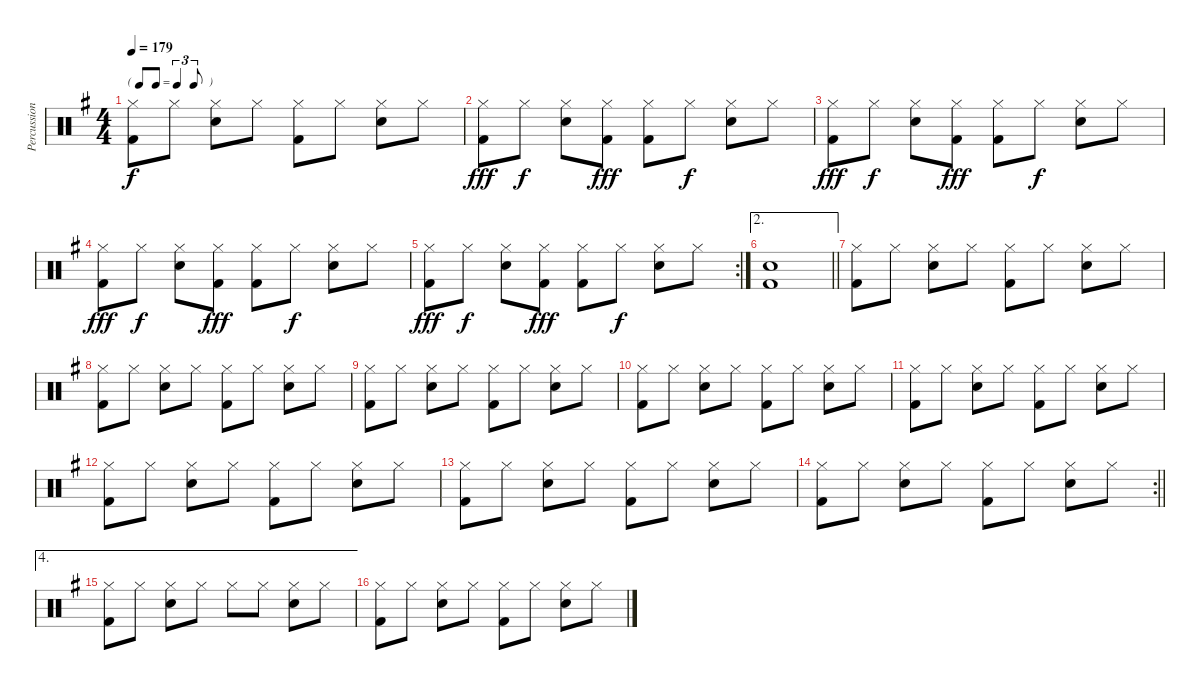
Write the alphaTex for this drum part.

\track ("Percussion" "Percussion") {instrument percussion}
\staff {score}
\articulation defaults
\ts (4 4)
\tf triplet8th
\tempo 179
\clef neutral
\ks g
("Hi-Hat (closed)" "Kick (hit) 2").8{dy f} "Hi-Hat (closed)".8 ("Hi-Hat (closed)" "Snare (hit) 2").8 "Hi-Hat (closed)".8 ("Hi-Hat (closed)" "Kick (hit) 2").8 "Hi-Hat (closed)".8 ("Hi-Hat (closed)" "Snare (hit) 2").8 "Hi-Hat (closed)".8 |
("Hi-Hat (closed)" "Kick (hit) 2").8{dy fff} "Hi-Hat (closed)".8{dy f} ("Hi-Hat (closed)" "Snare (hit) 2").8 ("Hi-Hat (closed)" "Kick (hit) 2").8{dy fff} ("Hi-Hat (closed)" "Kick (hit) 2").8 "Hi-Hat (closed)".8{dy f} ("Hi-Hat (closed)" "Snare (hit) 2").8 "Hi-Hat (closed)".8 |
("Hi-Hat (closed)" "Kick (hit) 2").8{dy fff} "Hi-Hat (closed)".8{dy f} ("Hi-Hat (closed)" "Snare (hit) 2").8 ("Hi-Hat (closed)" "Kick (hit) 2").8{dy fff} ("Hi-Hat (closed)" "Kick (hit) 2").8 "Hi-Hat (closed)".8{dy f} ("Hi-Hat (closed)" "Snare (hit) 2").8 "Hi-Hat (closed)".8 |
("Hi-Hat (closed)" "Kick (hit) 2").8{dy fff} "Hi-Hat (closed)".8{dy f} ("Hi-Hat (closed)" "Snare (hit) 2").8 ("Hi-Hat (closed)" "Kick (hit) 2").8{dy fff} ("Hi-Hat (closed)" "Kick (hit) 2").8 "Hi-Hat (closed)".8{dy f} ("Hi-Hat (closed)" "Snare (hit) 2").8 "Hi-Hat (closed)".8 |
\rc 2
("Hi-Hat (closed)" "Kick (hit) 2").8{dy fff} "Hi-Hat (closed)".8{dy f} ("Hi-Hat (closed)" "Snare (hit) 2").8 ("Hi-Hat (closed)" "Kick (hit) 2").8{dy fff} ("Hi-Hat (closed)" "Kick (hit) 2").8 "Hi-Hat (closed)".8{dy f} ("Hi-Hat (closed)" "Snare (hit) 2").8 "Hi-Hat (closed)".8 |
\ae 2
\barLineRight lightlight
("Snare (hit) 2" "Kick (hit) 2").1 |
("Hi-Hat (closed)" "Kick (hit) 2").8 "Hi-Hat (closed)".8 ("Hi-Hat (closed)" "Snare (hit) 2").8 "Hi-Hat (closed)".8 ("Hi-Hat (closed)" "Kick (hit) 2").8 "Hi-Hat (closed)".8 ("Hi-Hat (closed)" "Snare (hit) 2").8 "Hi-Hat (closed)".8 |
("Hi-Hat (closed)" "Kick (hit) 2").8 "Hi-Hat (closed)".8 ("Hi-Hat (closed)" "Snare (hit) 2").8 "Hi-Hat (closed)".8 ("Hi-Hat (closed)" "Kick (hit) 2").8 "Hi-Hat (closed)".8 ("Hi-Hat (closed)" "Snare (hit) 2").8 "Hi-Hat (closed)".8 |
("Hi-Hat (closed)" "Kick (hit) 2").8 "Hi-Hat (closed)".8 ("Hi-Hat (closed)" "Snare (hit) 2").8 "Hi-Hat (closed)".8 ("Hi-Hat (closed)" "Kick (hit) 2").8 "Hi-Hat (closed)".8 ("Hi-Hat (closed)" "Snare (hit) 2").8 "Hi-Hat (closed)".8 |
("Hi-Hat (closed)" "Kick (hit) 2").8 "Hi-Hat (closed)".8 ("Hi-Hat (closed)" "Snare (hit) 2").8 "Hi-Hat (closed)".8 ("Hi-Hat (closed)" "Kick (hit) 2").8 "Hi-Hat (closed)".8 ("Hi-Hat (closed)" "Snare (hit) 2").8 "Hi-Hat (closed)".8 |
("Hi-Hat (closed)" "Kick (hit) 2").8 "Hi-Hat (closed)".8 ("Hi-Hat (closed)" "Snare (hit) 2").8 "Hi-Hat (closed)".8 ("Hi-Hat (closed)" "Kick (hit) 2").8 "Hi-Hat (closed)".8 ("Hi-Hat (closed)" "Snare (hit) 2").8 "Hi-Hat (closed)".8 |
("Hi-Hat (closed)" "Kick (hit) 2").8 "Hi-Hat (closed)".8 ("Hi-Hat (closed)" "Snare (hit) 2").8 "Hi-Hat (closed)".8 ("Hi-Hat (closed)" "Kick (hit) 2").8 "Hi-Hat (closed)".8 ("Hi-Hat (closed)" "Snare (hit) 2").8 "Hi-Hat (closed)".8 |
("Hi-Hat (closed)" "Kick (hit) 2").8 "Hi-Hat (closed)".8 ("Hi-Hat (closed)" "Snare (hit) 2").8 "Hi-Hat (closed)".8 ("Hi-Hat (closed)" "Kick (hit) 2").8 "Hi-Hat (closed)".8 ("Hi-Hat (closed)" "Snare (hit) 2").8 "Hi-Hat (closed)".8 |
\rc 2
\barLineRight lightlight
("Hi-Hat (closed)" "Kick (hit) 2").8 "Hi-Hat (closed)".8 ("Hi-Hat (closed)" "Snare (hit) 2").8 "Hi-Hat (closed)".8 ("Hi-Hat (closed)" "Kick (hit) 2").8 "Hi-Hat (closed)".8 ("Hi-Hat (closed)" "Snare (hit) 2").8 "Hi-Hat (closed)".8 |
\ae 4
("Hi-Hat (closed)" "Kick (hit) 2").8 "Hi-Hat (closed)".8 ("Hi-Hat (closed)" "Snare (hit) 2").8 "Hi-Hat (closed)".8 "Hi-Hat (closed)".8 "Hi-Hat (closed)".8 ("Hi-Hat (closed)" "Snare (hit) 2").8 "Hi-Hat (closed)".8 |
("Hi-Hat (closed)" "Kick (hit) 2").8 "Hi-Hat (closed)".8 ("Hi-Hat (closed)" "Snare (hit) 2").8 "Hi-Hat (closed)".8 ("Hi-Hat (closed)" "Kick (hit) 2").8 "Hi-Hat (closed)".8 ("Hi-Hat (closed)" "Snare (hit) 2").8 "Hi-Hat (closed)".8
